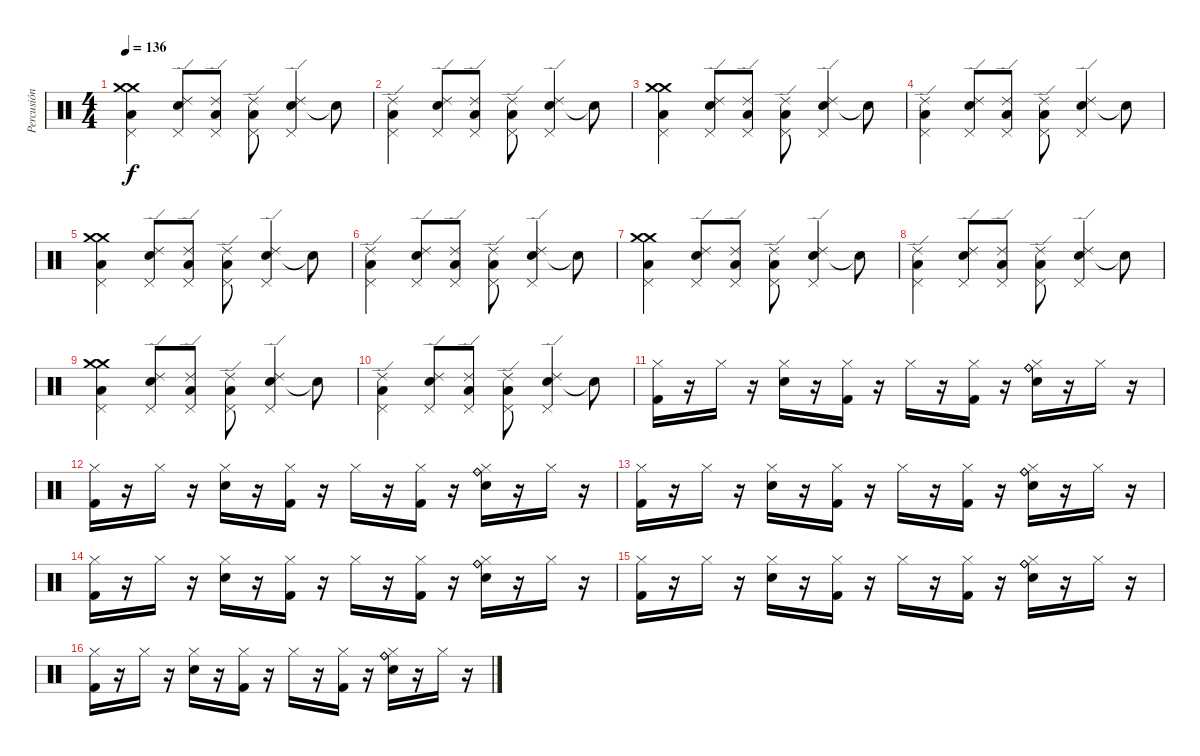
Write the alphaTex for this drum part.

\track ("Percusión" "Percusión") {instrument percussion}
\staff {score}
\articulation defaults
\ts (4 4)
\tempo 136
\clef neutral
\ks c
("Low Tom (hit)" "Pedal Hi-Hat (hit)" "Crash medium (hit)" "Crash medium (hit)").4{dy f} ("Electric Snare (hit)" "Pedal Hi-Hat (hit)" "Ride (edge) 2").8 ("Low Tom (hit)" "Pedal Hi-Hat (hit)" "Ride (edge) 2").8 ("Low Tom (hit)" "Pedal Hi-Hat (hit)" "Ride (edge) 2").8 ("Electric Snare (hit)" "Pedal Hi-Hat (hit)" "Ride (edge) 2").4 "Snare (hit)"{t}.8 |
("Low Tom (hit)" "Pedal Hi-Hat (hit)" "Ride (edge) 2").4 ("Electric Snare (hit)" "Pedal Hi-Hat (hit)" "Ride (edge) 2").8 ("Low Tom (hit)" "Pedal Hi-Hat (hit)" "Ride (edge) 2").8 ("Low Tom (hit)" "Pedal Hi-Hat (hit)" "Ride (edge) 2").8 ("Electric Snare (hit)" "Pedal Hi-Hat (hit)" "Ride (edge) 2").4 "Snare (hit)"{t}.8 |
("Low Tom (hit)" "Pedal Hi-Hat (hit)" "Crash medium (hit)" "Crash medium (hit)").4 ("Electric Snare (hit)" "Pedal Hi-Hat (hit)" "Ride (edge) 2").8 ("Low Tom (hit)" "Pedal Hi-Hat (hit)" "Ride (edge) 2").8 ("Low Tom (hit)" "Pedal Hi-Hat (hit)" "Ride (edge) 2").8 ("Electric Snare (hit)" "Pedal Hi-Hat (hit)" "Ride (edge) 2").4 "Snare (hit)"{t}.8 |
("Low Tom (hit)" "Pedal Hi-Hat (hit)" "Ride (edge) 2").4 ("Electric Snare (hit)" "Pedal Hi-Hat (hit)" "Ride (edge) 2").8 ("Low Tom (hit)" "Pedal Hi-Hat (hit)" "Ride (edge) 2").8 ("Low Tom (hit)" "Pedal Hi-Hat (hit)" "Ride (edge) 2").8 ("Electric Snare (hit)" "Pedal Hi-Hat (hit)" "Ride (edge) 2").4 "Snare (hit)"{t}.8 |
("Low Tom (hit)" "Pedal Hi-Hat (hit)" "Crash medium (hit)" "Crash medium (hit)").4 ("Electric Snare (hit)" "Pedal Hi-Hat (hit)" "Ride (edge) 2").8 ("Low Tom (hit)" "Pedal Hi-Hat (hit)" "Ride (edge) 2").8 ("Low Tom (hit)" "Pedal Hi-Hat (hit)" "Ride (edge) 2").8 ("Electric Snare (hit)" "Pedal Hi-Hat (hit)" "Ride (edge) 2").4 "Snare (hit)"{t}.8 |
("Low Tom (hit)" "Pedal Hi-Hat (hit)" "Ride (edge) 2").4 ("Electric Snare (hit)" "Pedal Hi-Hat (hit)" "Ride (edge) 2").8 ("Low Tom (hit)" "Pedal Hi-Hat (hit)" "Ride (edge) 2").8 ("Low Tom (hit)" "Pedal Hi-Hat (hit)" "Ride (edge) 2").8 ("Electric Snare (hit)" "Pedal Hi-Hat (hit)" "Ride (edge) 2").4 "Snare (hit)"{t}.8 |
("Low Tom (hit)" "Pedal Hi-Hat (hit)" "Crash medium (hit)" "Crash medium (hit)").4 ("Electric Snare (hit)" "Pedal Hi-Hat (hit)" "Ride (edge) 2").8 ("Low Tom (hit)" "Pedal Hi-Hat (hit)" "Ride (edge) 2").8 ("Low Tom (hit)" "Pedal Hi-Hat (hit)" "Ride (edge) 2").8 ("Electric Snare (hit)" "Pedal Hi-Hat (hit)" "Ride (edge) 2").4 "Snare (hit)"{t}.8 |
("Low Tom (hit)" "Pedal Hi-Hat (hit)" "Ride (edge) 2").4 ("Electric Snare (hit)" "Pedal Hi-Hat (hit)" "Ride (edge) 2").8 ("Low Tom (hit)" "Pedal Hi-Hat (hit)" "Ride (edge) 2").8 ("Low Tom (hit)" "Pedal Hi-Hat (hit)" "Ride (edge) 2").8 ("Electric Snare (hit)" "Pedal Hi-Hat (hit)" "Ride (edge) 2").4 "Snare (hit)"{t}.8 |
("Low Tom (hit)" "Pedal Hi-Hat (hit)" "Crash medium (hit)" "Crash medium (hit)").4 ("Electric Snare (hit)" "Pedal Hi-Hat (hit)" "Ride (edge) 2").8 ("Low Tom (hit)" "Pedal Hi-Hat (hit)" "Ride (edge) 2").8 ("Low Tom (hit)" "Pedal Hi-Hat (hit)" "Ride (edge) 2").8 ("Electric Snare (hit)" "Pedal Hi-Hat (hit)" "Ride (edge) 2").4 "Snare (hit)"{t}.8 |
("Low Tom (hit)" "Pedal Hi-Hat (hit)" "Ride (edge) 2").4 ("Electric Snare (hit)" "Pedal Hi-Hat (hit)" "Ride (edge) 2").8 ("Low Tom (hit)" "Pedal Hi-Hat (hit)" "Ride (edge) 2").8 ("Low Tom (hit)" "Pedal Hi-Hat (hit)" "Ride (edge) 2").8 ("Electric Snare (hit)" "Pedal Hi-Hat (hit)" "Ride (edge) 2").4 "Snare (hit)"{t}.8 |
("Kick (hit) 2" "Hi-Hat (closed)").16 r.16 "Hi-Hat (closed)".16 r.16 ("Electric Snare (hit)" "Hi-Hat (closed)").16 r.16 ("Kick (hit) 2" "Hi-Hat (closed)").16 r.16 "Hi-Hat (closed)".16 r.16 ("Kick (hit) 2" "Hi-Hat (closed)").16 r.16 ("Electric Snare (hit)" "Hi-Hat (closed)" "Ride (bell)" "Ride (bell)").16 r.16 "Hi-Hat (closed)".16 r.16 |
("Kick (hit) 2" "Hi-Hat (closed)").16 r.16 "Hi-Hat (closed)".16 r.16 ("Electric Snare (hit)" "Hi-Hat (closed)").16 r.16 ("Kick (hit) 2" "Hi-Hat (closed)").16 r.16 "Hi-Hat (closed)".16 r.16 ("Kick (hit) 2" "Hi-Hat (closed)").16 r.16 ("Electric Snare (hit)" "Hi-Hat (closed)" "Ride (bell)" "Ride (bell)").16 r.16 "Hi-Hat (closed)".16 r.16 |
("Kick (hit) 2" "Hi-Hat (closed)").16 r.16 "Hi-Hat (closed)".16 r.16 ("Electric Snare (hit)" "Hi-Hat (closed)").16 r.16 ("Kick (hit) 2" "Hi-Hat (closed)").16 r.16 "Hi-Hat (closed)".16 r.16 ("Kick (hit) 2" "Hi-Hat (closed)").16 r.16 ("Electric Snare (hit)" "Hi-Hat (closed)" "Ride (bell)" "Ride (bell)").16 r.16 "Hi-Hat (closed)".16 r.16 |
("Kick (hit) 2" "Hi-Hat (closed)").16 r.16 "Hi-Hat (closed)".16 r.16 ("Electric Snare (hit)" "Hi-Hat (closed)").16 r.16 ("Kick (hit) 2" "Hi-Hat (closed)").16 r.16 "Hi-Hat (closed)".16 r.16 ("Kick (hit) 2" "Hi-Hat (closed)").16 r.16 ("Electric Snare (hit)" "Hi-Hat (closed)" "Ride (bell)" "Ride (bell)").16 r.16 "Hi-Hat (closed)".16 r.16 |
("Kick (hit) 2" "Hi-Hat (closed)").16 r.16 "Hi-Hat (closed)".16 r.16 ("Electric Snare (hit)" "Hi-Hat (closed)").16 r.16 ("Kick (hit) 2" "Hi-Hat (closed)").16 r.16 "Hi-Hat (closed)".16 r.16 ("Kick (hit) 2" "Hi-Hat (closed)").16 r.16 ("Electric Snare (hit)" "Hi-Hat (closed)" "Ride (bell)" "Ride (bell)").16 r.16 "Hi-Hat (closed)".16 r.16 |
("Kick (hit) 2" "Hi-Hat (closed)").16 r.16 "Hi-Hat (closed)".16 r.16 ("Electric Snare (hit)" "Hi-Hat (closed)").16 r.16 ("Kick (hit) 2" "Hi-Hat (closed)").16 r.16 "Hi-Hat (closed)".16 r.16 ("Kick (hit) 2" "Hi-Hat (closed)").16 r.16 ("Electric Snare (hit)" "Hi-Hat (closed)" "Ride (bell)" "Ride (bell)").16 r.16 "Hi-Hat (closed)".16 r.16
